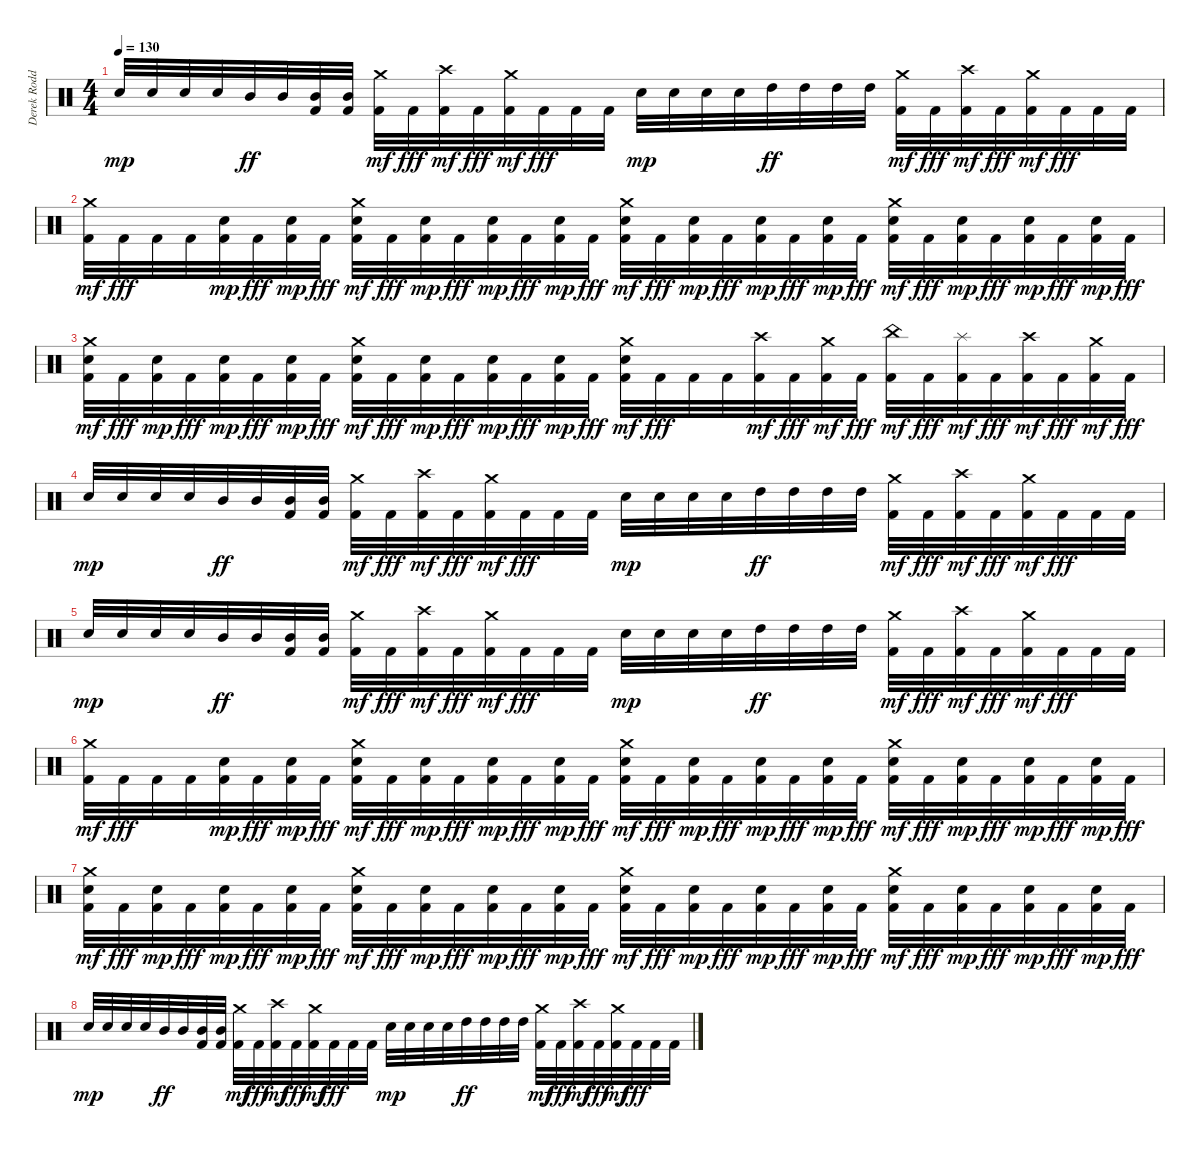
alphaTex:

\track ("Derek Roddy" "Derek Rodd") {instrument percussion}
\staff {score}
\articulation defaults
\ts (4 4)
\tempo 130
\clef neutral
\ks c "Electric Snare (hit)".32{dy mp} "Electric Snare (hit)".32 "Electric Snare (hit)".32 "Electric Snare (hit)".32 "Mid Tom (hit)".32{dy ff} "Mid Tom (hit)".32
("Kick (hit) 2" "Mid Tom (hit)").32 ("Kick (hit) 2" "Mid Tom (hit)").32 ("Kick (hit) 2" "Crash medium (hit)").32{dy mf} "Kick (hit) 2".32{dy fff} ("Kick (hit) 2" "Crash high (hit)").32{dy mf} "Kick (hit) 2".32{dy fff} ("Kick (hit) 2" "Crash medium (hit)").32{dy mf} "Kick (hit) 2".32{dy fff} "Kick (hit) 2".32 "Kick (hit) 2".32 "Electric Snare (hit)".32{dy mp} "Electric Snare (hit)".32 "Electric Snare (hit)".32 "Electric Snare (hit)".32 "High Tom (hit)".32{dy ff} "High Tom (hit)".32 "High Tom (hit)".32 "High Tom (hit)".32 ("Kick (hit) 2" "Crash medium (hit)").32{dy mf} "Kick (hit) 2".32{dy fff} ("Kick (hit) 2" "Crash high (hit)").32{dy mf} "Kick (hit) 2".32{dy fff} ("Kick (hit) 2" "Crash medium (hit)").32{dy mf} "Kick (hit) 2".32{dy fff} "Kick (hit) 2".32 "Kick (hit) 2".32 |
("Kick (hit) 2" "Crash medium (hit)").32{dy mf} "Kick (hit) 2".32{dy fff} "Kick (hit) 2".32 "Kick (hit) 2".32 ("Kick (hit) 2" "Electric Snare (hit)").32{dy mp} "Kick (hit) 2".32{dy fff} ("Kick (hit) 2" "Electric Snare (hit)").32{dy mp} "Kick (hit) 2".32{dy fff} ("Kick (hit) 2" "Electric Snare (hit)" "Crash medium (hit)").32{dy mf} "Kick (hit) 2".32{dy fff} ("Kick (hit) 2" "Electric Snare (hit)").32{dy mp} "Kick (hit) 2".32{dy fff} ("Kick (hit) 2" "Electric Snare (hit)").32{dy mp} "Kick (hit) 2".32{dy fff} ("Kick (hit) 2" "Electric Snare (hit)").32{dy mp} "Kick (hit) 2".32{dy fff} ("Kick (hit) 2" "Electric Snare (hit)" "Crash medium (hit)").32{dy mf} "Kick (hit) 2".32{dy fff} ("Kick (hit) 2" "Electric Snare (hit)").32{dy mp} "Kick (hit) 2".32{dy fff} ("Kick (hit) 2" "Electric Snare (hit)").32{dy mp} "Kick (hit) 2".32{dy fff} ("Kick (hit) 2" "Electric Snare (hit)").32{dy mp} "Kick (hit) 2".32{dy fff} ("Kick (hit) 2" "Electric Snare (hit)" "Crash medium (hit)").32{dy mf} "Kick (hit) 2".32{dy fff} ("Kick (hit) 2" "Electric Snare (hit)").32{dy mp} "Kick (hit) 2".32{dy fff} ("Kick (hit) 2" "Electric Snare (hit)").32{dy mp} "Kick (hit) 2".32{dy fff} ("Kick (hit) 2" "Electric Snare (hit)").32{dy mp} "Kick (hit) 2".32{dy fff} |
("Kick (hit) 2" "Electric Snare (hit)" "Crash medium (hit)").32{dy mf} "Kick (hit) 2".32{dy fff} ("Kick (hit) 2" "Electric Snare (hit)").32{dy mp} "Kick (hit) 2".32{dy fff} ("Kick (hit) 2" "Electric Snare (hit)").32{dy mp} "Kick (hit) 2".32{dy fff} ("Kick (hit) 2" "Electric Snare (hit)").32{dy mp} "Kick (hit) 2".32{dy fff} ("Kick (hit) 2" "Electric Snare (hit)" "Crash medium (hit)").32{dy mf} "Kick (hit) 2".32{dy fff} ("Kick (hit) 2" "Electric Snare (hit)").32{dy mp} "Kick (hit) 2".32{dy fff} ("Kick (hit) 2" "Electric Snare (hit)").32{dy mp} "Kick (hit) 2".32{dy fff} ("Kick (hit) 2" "Electric Snare (hit)").32{dy mp} "Kick (hit) 2".32{dy fff} ("Kick (hit) 2" "Electric Snare (hit)" "Crash medium (hit)").32{dy mf} "Kick (hit) 2".32{dy fff} "Kick (hit) 2".32 "Kick (hit) 2".32 ("Kick (hit) 2" "Crash high (hit)").32{dy mf} "Kick (hit) 2".32{dy fff} ("Kick (hit) 2" "Crash medium (hit)").32{dy mf} "Kick (hit) 2".32{dy fff} ("Kick (hit) 2" "China (hit)").32{dy mf} "Kick (hit) 2".32{dy fff} ("Kick (hit) 2" "Splash (hit)").32{dy mf} "Kick (hit) 2".32{dy fff} ("Kick (hit) 2" "Crash high (hit)").32{dy mf} "Kick (hit) 2".32{dy fff} ("Kick (hit) 2" "Crash medium (hit)").32{dy mf} "Kick (hit) 2".32{dy fff} |
"Electric Snare (hit)".32{dy mp} "Electric Snare (hit)".32 "Electric Snare (hit)".32 "Electric Snare (hit)".32 "Mid Tom (hit)".32{dy ff} "Mid Tom (hit)".32 ("Kick (hit) 2" "Mid Tom (hit)").32 ("Kick (hit) 2" "Mid Tom (hit)").32 ("Kick (hit) 2" "Crash medium (hit)").32{dy mf} "Kick (hit) 2".32{dy fff} ("Kick (hit) 2" "Crash high (hit)").32{dy mf} "Kick (hit) 2".32{dy fff} ("Kick (hit) 2" "Crash medium (hit)").32{dy mf} "Kick (hit) 2".32{dy fff} "Kick (hit) 2".32 "Kick (hit) 2".32 "Electric Snare (hit)".32{dy mp} "Electric Snare (hit)".32 "Electric Snare (hit)".32 "Electric Snare (hit)".32 "High Tom (hit)".32{dy ff} "High Tom (hit)".32 "High Tom (hit)".32 "High Tom (hit)".32 ("Kick (hit) 2" "Crash medium (hit)").32{dy mf} "Kick (hit) 2".32{dy fff} ("Kick (hit) 2" "Crash high (hit)").32{dy mf} "Kick (hit) 2".32{dy fff} ("Kick (hit) 2" "Crash medium (hit)").32{dy mf} "Kick (hit) 2".32{dy fff} "Kick (hit) 2".32 "Kick (hit) 2".32 |
"Electric Snare (hit)".32{dy mp} "Electric Snare (hit)".32 "Electric Snare (hit)".32 "Electric Snare (hit)".32 "Mid Tom (hit)".32{dy ff} "Mid Tom (hit)".32 ("Kick (hit) 2" "Mid Tom (hit)").32 ("Kick (hit) 2" "Mid Tom (hit)").32 ("Kick (hit) 2" "Crash medium (hit)").32{dy mf} "Kick (hit) 2".32{dy fff} ("Kick (hit) 2" "Crash high (hit)").32{dy mf} "Kick (hit) 2".32{dy fff} ("Kick (hit) 2" "Crash medium (hit)").32{dy mf} "Kick (hit) 2".32{dy fff} "Kick (hit) 2".32 "Kick (hit) 2".32 "Electric Snare (hit)".32{dy mp} "Electric Snare (hit)".32 "Electric Snare (hit)".32 "Electric Snare (hit)".32 "High Tom (hit)".32{dy ff} "High Tom (hit)".32 "High Tom (hit)".32 "High Tom (hit)".32 ("Kick (hit) 2" "Crash medium (hit)").32{dy mf} "Kick (hit) 2".32{dy fff} ("Kick (hit) 2" "Crash high (hit)").32{dy mf} "Kick (hit) 2".32{dy fff} ("Kick (hit) 2" "Crash medium (hit)").32{dy mf} "Kick (hit) 2".32{dy fff} "Kick (hit) 2".32 "Kick (hit) 2".32 |
("Kick (hit) 2" "Crash medium (hit)").32{dy mf} "Kick (hit) 2".32{dy fff} "Kick (hit) 2".32 "Kick (hit) 2".32 ("Kick (hit) 2" "Electric Snare (hit)").32{dy mp} "Kick (hit) 2".32{dy fff} ("Kick (hit) 2" "Electric Snare (hit)").32{dy mp} "Kick (hit) 2".32{dy fff} ("Kick (hit) 2" "Electric Snare (hit)" "Crash medium (hit)").32{dy mf} "Kick (hit) 2".32{dy fff} ("Kick (hit) 2" "Electric Snare (hit)").32{dy mp} "Kick (hit) 2".32{dy fff} ("Kick (hit) 2" "Electric Snare (hit)").32{dy mp} "Kick (hit) 2".32{dy fff} ("Kick (hit) 2" "Electric Snare (hit)").32{dy mp} "Kick (hit) 2".32{dy fff} ("Kick (hit) 2" "Electric Snare (hit)" "Crash medium (hit)").32{dy mf} "Kick (hit) 2".32{dy fff} ("Kick (hit) 2" "Electric Snare (hit)").32{dy mp} "Kick (hit) 2".32{dy fff} ("Kick (hit) 2" "Electric Snare (hit)").32{dy mp} "Kick (hit) 2".32{dy fff} ("Kick (hit) 2" "Electric Snare (hit)").32{dy mp} "Kick (hit) 2".32{dy fff} ("Kick (hit) 2" "Electric Snare (hit)" "Crash medium (hit)").32{dy mf} "Kick (hit) 2".32{dy fff} ("Kick (hit) 2" "Electric Snare (hit)").32{dy mp} "Kick (hit) 2".32{dy fff} ("Kick (hit) 2" "Electric Snare (hit)").32{dy mp} "Kick (hit) 2".32{dy fff} ("Kick (hit) 2" "Electric Snare (hit)").32{dy mp} "Kick (hit) 2".32{dy fff} |
("Kick (hit) 2" "Electric Snare (hit)" "Crash medium (hit)").32{dy mf} "Kick (hit) 2".32{dy fff} ("Kick (hit) 2" "Electric Snare (hit)").32{dy mp} "Kick (hit) 2".32{dy fff} ("Kick (hit) 2" "Electric Snare (hit)").32{dy mp} "Kick (hit) 2".32{dy fff} ("Kick (hit) 2" "Electric Snare (hit)").32{dy mp} "Kick (hit) 2".32{dy fff} ("Kick (hit) 2" "Electric Snare (hit)" "Crash medium (hit)").32{dy mf} "Kick (hit) 2".32{dy fff} ("Kick (hit) 2" "Electric Snare (hit)").32{dy mp} "Kick (hit) 2".32{dy fff} ("Kick (hit) 2" "Electric Snare (hit)").32{dy mp} "Kick (hit) 2".32{dy fff} ("Kick (hit) 2" "Electric Snare (hit)").32{dy mp} "Kick (hit) 2".32{dy fff} ("Kick (hit) 2" "Electric Snare (hit)" "Crash medium (hit)").32{dy mf} "Kick (hit) 2".32{dy fff} ("Kick (hit) 2" "Electric Snare (hit)").32{dy mp} "Kick (hit) 2".32{dy fff} ("Kick (hit) 2" "Electric Snare (hit)").32{dy mp} "Kick (hit) 2".32{dy fff} ("Kick (hit) 2" "Electric Snare (hit)").32{dy mp} "Kick (hit) 2".32{dy fff} ("Kick (hit) 2" "Electric Snare (hit)" "Crash medium (hit)").32{dy mf} "Kick (hit) 2".32{dy fff} ("Kick (hit) 2" "Electric Snare (hit)").32{dy mp} "Kick (hit) 2".32{dy fff} ("Kick (hit) 2" "Electric Snare (hit)").32{dy mp} "Kick (hit) 2".32{dy fff} ("Kick (hit) 2" "Electric Snare (hit)").32{dy mp} "Kick (hit) 2".32{dy fff} |
"Electric Snare (hit)".32{dy mp} "Electric Snare (hit)".32 "Electric Snare (hit)".32 "Electric Snare (hit)".32 "Mid Tom (hit)".32{dy ff} "Mid Tom (hit)".32 ("Kick (hit) 2" "Mid Tom (hit)").32 ("Kick (hit) 2" "Mid Tom (hit)").32 ("Kick (hit) 2" "Crash medium (hit)").32{dy mf} "Kick (hit) 2".32{dy fff} ("Kick (hit) 2" "Crash high (hit)").32{dy mf} "Kick (hit) 2".32{dy fff} ("Kick (hit) 2" "Crash medium (hit)").32{dy mf} "Kick (hit) 2".32{dy fff} "Kick (hit) 2".32 "Kick (hit) 2".32 "Electric Snare (hit)".32{dy mp} "Electric Snare (hit)".32 "Electric Snare (hit)".32 "Electric Snare (hit)".32 "High Tom (hit)".32{dy ff} "High Tom (hit)".32 "High Tom (hit)".32 "High Tom (hit)".32 ("Kick (hit) 2" "Crash medium (hit)").32{dy mf} "Kick (hit) 2".32{dy fff} ("Kick (hit) 2" "Crash high (hit)").32{dy mf} "Kick (hit) 2".32{dy fff} ("Kick (hit) 2" "Crash medium (hit)").32{dy mf} "Kick (hit) 2".32{dy fff} "Kick (hit) 2".32 "Kick (hit) 2".32
